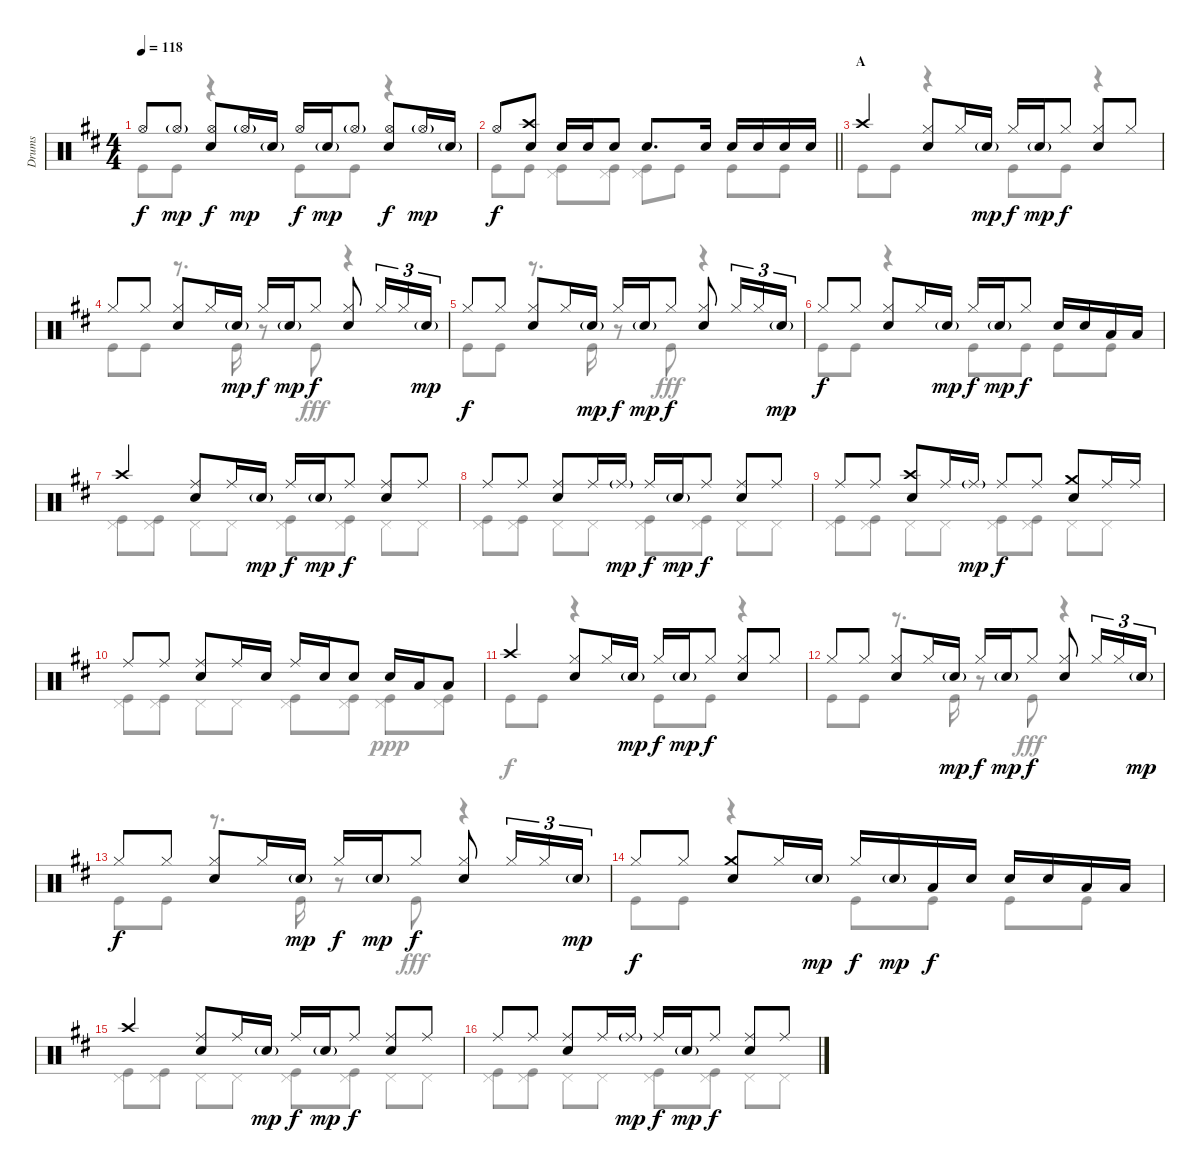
\track ("Drums" "Drums") {instrument percussion}
\staff {score}
\articulation defaults
\voice
\ts (4 4)
\tempo 118
\clef neutral
\ks d "Hi-Hat (open)".8{dy f} "Hi-Hat (open)"{g}.8{dy mp}
("Hi-Hat (open)" "Snare (hit) 2").8{dy f} "Hi-Hat (open)"{g}.16{dy mp} "Snare (hit) 2"{g}.16 "Hi-Hat (open)".16{dy f} "Snare (hit) 2"{g}.16{dy mp} "Hi-Hat (open)"{g}.8 ("Hi-Hat (open)" "Snare (hit) 2").8{dy f} "Hi-Hat (open)"{g}.16{dy mp} "Snare (hit) 2"{g}.16 |
\barLineRight lightlight "Hi-Hat (open)".8{dy f}
("Crash high (hit)" "Snare (hit) 2").8 "Snare (hit) 2".16 "Snare (hit) 2".16 "Snare (hit) 2".8 "Snare (hit) 2".8{d} "Snare (hit) 2".16 "Snare (hit) 2".16 "Snare (hit) 2".16 "Snare (hit) 2".16 "Snare (hit) 2".16 |
\section ("" "A")
"Crash high (hit)".4 ("Hi-Hat (closed)" "Snare (hit) 2").8 "Hi-Hat (closed)".16 "Snare (hit) 2"{g}.16{dy mp} "Hi-Hat (closed)".16{dy f} "Snare (hit) 2"{g}.16{dy mp} "Hi-Hat (closed)".8{dy f} ("Hi-Hat (closed)" "Snare (hit) 2").8 "Hi-Hat (closed)".8 |
"Hi-Hat (closed)".8 "Hi-Hat (closed)".8 ("Hi-Hat (closed)" "Snare (hit) 2").8 "Hi-Hat (closed)".16 "Snare (hit) 2"{g}.16{dy mp} "Hi-Hat (closed)".16{dy f} "Snare (hit) 2"{g}.16{dy mp} "Hi-Hat (closed)".8{dy f} ("Hi-Hat (closed)" "Snare (hit) 2").8 "Hi-Hat (closed)".16{tu (3 2)} "Hi-Hat (closed)".16{tu (3 2)} "Snare (hit) 2"{g}.16{tu (3 2) dy mp} |
"Hi-Hat (closed)".8{dy f} "Hi-Hat (closed)".8 ("Hi-Hat (closed)" "Snare (hit) 2").8 "Hi-Hat (closed)".16 "Snare (hit) 2"{g}.16{dy mp} "Hi-Hat (closed)".16{dy f} "Snare (hit) 2"{g}.16{dy mp} "Hi-Hat (closed)".8{dy f} ("Hi-Hat (closed)" "Snare (hit) 2").8 "Hi-Hat (closed)".16{tu (3 2)} "Hi-Hat (closed)".16{tu (3 2)} "Snare (hit) 2"{g}.16{tu (3 2) dy mp} |
"Hi-Hat (closed)".8{dy f} "Hi-Hat (closed)".8 ("Hi-Hat (closed)" "Snare (hit) 2").8 "Hi-Hat (closed)".16 "Snare (hit) 2"{g}.16{dy mp} "Hi-Hat (closed)".16{dy f} "Snare (hit) 2"{g}.16{dy mp} "Hi-Hat (closed)".8{dy f} "Snare (hit) 2".16 "Snare (hit) 2".16 "Low Tom (hit)".16 "Low Tom (hit)".16 |
"Crash high (hit)".4 ("Ride (middle)" "Snare (hit) 2").8 "Ride (middle)".16 "Snare (hit) 2"{g}.16{dy mp} "Ride (middle)".16{dy f} "Snare (hit) 2"{g}.16{dy mp} "Ride (middle)".8{dy f} ("Ride (middle)" "Snare (hit) 2").8 "Ride (middle)".8 |
"Ride (middle)".8 "Ride (middle)".8 ("Ride (middle)" "Snare (hit) 2").8 "Ride (middle)".16 "Ride (middle)"{g}.16{dy mp} "Ride (middle)".16{dy f} "Snare (hit) 2"{g}.16{dy mp} "Ride (middle)".8{dy f} ("Ride (middle)" "Snare (hit) 2").8 "Ride (middle)".8 |
"Ride (middle)".8 "Ride (middle)".8 ("Crash high (hit)" "Snare (hit) 2").8 "Ride (middle)".16 "Ride (middle)"{g}.16{dy mp} "Ride (middle)".8{dy f} "Ride (middle)".8 ("Crash medium (hit)" "Snare (hit) 2").8 "Ride (middle)".16 "Ride (middle)".16 |
"Ride (middle)".8 "Ride (middle)".8 ("Ride (middle)" "Snare (hit) 2").8 "Ride (middle)".16 "Snare (hit) 2".16 "Ride (middle)".16 "Snare (hit) 2".16 "Snare (hit) 2".8 "Snare (hit) 2".16 "Low Tom (hit)".16 "Low Tom (hit)".8 |
"Crash high (hit)".4 ("Hi-Hat (closed)" "Snare (hit) 2").8 "Hi-Hat (closed)".16 "Snare (hit) 2"{g}.16{dy mp} "Hi-Hat (closed)".16{dy f} "Snare (hit) 2"{g}.16{dy mp} "Hi-Hat (closed)".8{dy f} ("Hi-Hat (closed)" "Snare (hit) 2").8 "Hi-Hat (closed)".8 |
"Hi-Hat (closed)".8 "Hi-Hat (closed)".8 ("Hi-Hat (closed)" "Snare (hit) 2").8 "Hi-Hat (closed)".16 "Snare (hit) 2"{g}.16{dy mp} "Hi-Hat (closed)".16{dy f} "Snare (hit) 2"{g}.16{dy mp} "Hi-Hat (closed)".8{dy f} ("Hi-Hat (closed)" "Snare (hit) 2").8 "Hi-Hat (closed)".16{tu (3 2)} "Hi-Hat (closed)".16{tu (3 2)} "Snare (hit) 2"{g}.16{tu (3 2) dy mp} |
"Hi-Hat (closed)".8{dy f} "Hi-Hat (closed)".8 ("Hi-Hat (closed)" "Snare (hit) 2").8 "Hi-Hat (closed)".16 "Snare (hit) 2"{g}.16{dy mp} "Hi-Hat (closed)".16{dy f} "Snare (hit) 2"{g}.16{dy mp} "Hi-Hat (closed)".8{dy f} ("Hi-Hat (closed)" "Snare (hit) 2").8 "Hi-Hat (closed)".16{tu (3 2)} "Hi-Hat (closed)".16{tu (3 2)} "Snare (hit) 2"{g}.16{tu (3 2) dy mp} |
"Hi-Hat (closed)".8{dy f} "Hi-Hat (closed)".8 ("Crash medium (hit)" "Snare (hit) 2").8 "Hi-Hat (closed)".16 "Snare (hit) 2"{g}.16{dy mp} "Hi-Hat (closed)".16{dy f} "Snare (hit) 2"{g}.16{dy mp} "Low Tom (hit)".16{dy f} "Snare (hit) 2".16 "Snare (hit) 2".16 "Snare (hit) 2".16 "Low Tom (hit)".16 "Low Tom (hit)".16 |
"Crash high (hit)".4 ("Ride (middle)" "Snare (hit) 2").8 "Ride (middle)".16 "Snare (hit) 2"{g}.16{dy mp} "Ride (middle)".16{dy f} "Snare (hit) 2"{g}.16{dy mp} "Ride (middle)".8{dy f} ("Ride (middle)" "Snare (hit) 2").8 "Ride (middle)".8 |
"Ride (middle)".8 "Ride (middle)".8 ("Ride (middle)" "Snare (hit) 2").8 "Ride (middle)".16 "Ride (middle)"{g}.16{dy mp} "Ride (middle)".16{dy f} "Snare (hit) 2"{g}.16{dy mp} "Ride (middle)".8{dy f} ("Ride (middle)" "Snare (hit) 2").8 "Ride (middle)".8
\voice
\clef neutral
\ottava regular
\simile none
\ks d "Kick (hit)".8{dy f} "Kick (hit)".8
r.4 "Kick (hit)".8 "Kick (hit)".8 r.4 |
\barLineRight lightlight "Kick (hit)".8 "Kick (hit)".8
("Pedal Hi-Hat (hit)" "Kick (hit)").8 ("Pedal Hi-Hat (hit)" "Kick (hit)").8 ("Pedal Hi-Hat (hit)" "Kick (hit)").8 "Kick (hit)".8 "Kick (hit)".8 "Kick (hit)".8 |
"Kick (hit)".8 "Kick (hit)".8 r.4 "Kick (hit)".8 "Kick (hit)".8 r.4 |
"Kick (hit)".8 "Kick (hit)".8 r.8{d} "Kick (hit)".16 r.8 "Kick (hit)".8{dy fff} r.4 |
"Kick (hit)".8{dy f} "Kick (hit)".8 r.8{d} "Kick (hit)".16 r.8 "Kick (hit)".8{dy fff} r.4 |
"Kick (hit)".8{dy f} "Kick (hit)".8 r.4 "Kick (hit)".8 "Kick (hit)".8 "Kick (hit)".8 "Kick (hit)".8 |
("Pedal Hi-Hat (hit)" "Kick (hit)").8 ("Pedal Hi-Hat (hit)" "Kick (hit)").8 "Pedal Hi-Hat (hit)".8 "Pedal Hi-Hat (hit)".8 ("Pedal Hi-Hat (hit)" "Kick (hit)").8 ("Pedal Hi-Hat (hit)" "Kick (hit)").8 "Pedal Hi-Hat (hit)".8 "Pedal Hi-Hat (hit)".8 |
("Pedal Hi-Hat (hit)" "Kick (hit)").8 ("Pedal Hi-Hat (hit)" "Kick (hit)").8 "Pedal Hi-Hat (hit)".8 "Pedal Hi-Hat (hit)".8 ("Pedal Hi-Hat (hit)" "Kick (hit)").8 ("Pedal Hi-Hat (hit)" "Kick (hit)").8 "Pedal Hi-Hat (hit)".8 "Pedal Hi-Hat (hit)".8 |
("Pedal Hi-Hat (hit)" "Kick (hit)").8 ("Pedal Hi-Hat (hit)" "Kick (hit)").8 "Pedal Hi-Hat (hit)".8 "Pedal Hi-Hat (hit)".8 ("Pedal Hi-Hat (hit)" "Kick (hit)").8 ("Pedal Hi-Hat (hit)" "Kick (hit)").8 "Pedal Hi-Hat (hit)".8 "Pedal Hi-Hat (hit)".8 |
("Pedal Hi-Hat (hit)" "Kick (hit)").8 ("Pedal Hi-Hat (hit)" "Kick (hit)").8 "Pedal Hi-Hat (hit)".8 "Pedal Hi-Hat (hit)".8 ("Pedal Hi-Hat (hit)" "Kick (hit)").8 ("Pedal Hi-Hat (hit)" "Kick (hit)").8 ("Pedal Hi-Hat (hit)" "Kick (hit)").8{dy ppp} ("Pedal Hi-Hat (hit)" "Kick (hit)").8 |
"Kick (hit)".8{dy f} "Kick (hit)".8 r.4 "Kick (hit)".8 "Kick (hit)".8 r.4 |
"Kick (hit)".8 "Kick (hit)".8 r.8{d} "Kick (hit)".16 r.8 "Kick (hit)".8{dy fff} r.4 |
"Kick (hit)".8{dy f} "Kick (hit)".8 r.8{d} "Kick (hit)".16 r.8 "Kick (hit)".8{dy fff} r.4 |
"Kick (hit)".8{dy f} "Kick (hit)".8 r.4 "Kick (hit)".8 "Kick (hit)".8 "Kick (hit)".8 "Kick (hit)".8 |
("Pedal Hi-Hat (hit)" "Kick (hit)").8 ("Pedal Hi-Hat (hit)" "Kick (hit)").8 "Pedal Hi-Hat (hit)".8 "Pedal Hi-Hat (hit)".8 ("Pedal Hi-Hat (hit)" "Kick (hit)").8 ("Pedal Hi-Hat (hit)" "Kick (hit)").8 "Pedal Hi-Hat (hit)".8 "Pedal Hi-Hat (hit)".8 |
("Pedal Hi-Hat (hit)" "Kick (hit)").8 ("Pedal Hi-Hat (hit)" "Kick (hit)").8 "Pedal Hi-Hat (hit)".8 "Pedal Hi-Hat (hit)".8 ("Pedal Hi-Hat (hit)" "Kick (hit)").8 ("Pedal Hi-Hat (hit)" "Kick (hit)").8 "Pedal Hi-Hat (hit)".8 "Pedal Hi-Hat (hit)".8
